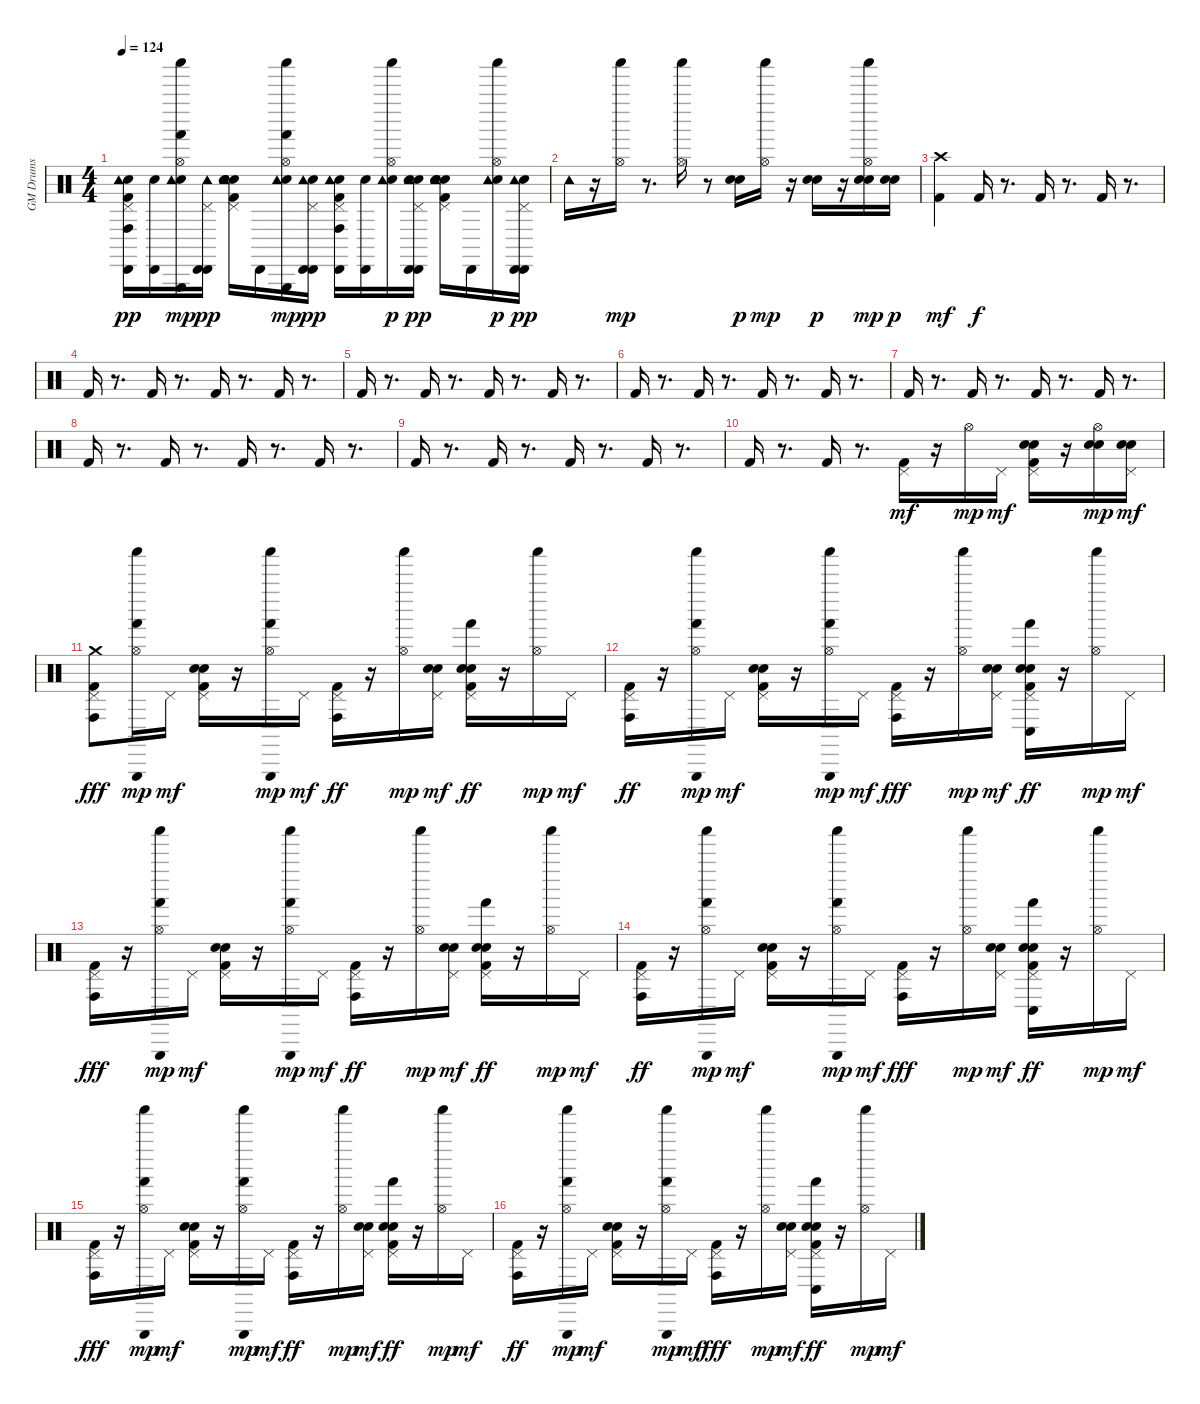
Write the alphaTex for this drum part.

\track ("GM Drums" "GM Drums") {instrument percussion}
\staff {score}
\articulation defaults
\ts (4 4)
\tempo 124
\clef neutral
\ks c
("Snare (hit)" "Kick (hit) 2" "Pedal Hi-Hat (hit)" "Tambourine (hit)" "Conga high (hit)" "Cabasa (hit)").16{dy pp} ("Snare (hit)" "Cabasa (hit)").16 ("Snare (hit)" "Hi-Hat (open)" "Tambourine (hit)" "Hand (hit)" "Triangle (hit)" "Shaker (hit)").16{dy mp} ("Pedal Hi-Hat (hit)" "Tambourine (hit)" "Cabasa (hit)" "Cabasa (hit)").16{dy pp} ("Snare (hit)" "Kick (hit) 2" "Snare (hit) 2" "Hand Clap (hit)" "Pedal Hi-Hat (hit)" "Tambourine (hit)").16 "Cabasa (hit)".16 ("Snare (hit)" "Hi-Hat (open)" "Tambourine (hit)" "Hand (hit)" "Triangle (hit)" "Shaker (hit)").16{dy mp} ("Snare (hit)" "Pedal Hi-Hat (hit)" "Tambourine (hit)" "Cabasa (hit)" "Cabasa (hit)").16{dy pp} ("Snare (hit)" "Kick (hit) 2" "Pedal Hi-Hat (hit)" "Tambourine (hit)" "Conga high (hit)" "Cabasa (hit)").16 ("Snare (hit)" "Cabasa (hit)").16 ("Snare (hit)" "Hi-Hat (open)" "Tambourine (hit)" "Shaker (hit)").16{dy p} ("Snare (hit) 2" "Hand Clap (hit)" "Pedal Hi-Hat (hit)" "Tambourine (hit)" "Cabasa (hit)" "Cabasa (hit)").16{dy pp} ("Snare (hit)" "Kick (hit) 2" "Snare (hit) 2" "Hand Clap (hit)" "Pedal Hi-Hat (hit)" "Tambourine (hit)").16 "Cabasa (hit)".16 ("Snare (hit)" "Hi-Hat (open)" "Tambourine (hit)" "Shaker (hit)").16{dy p} ("Snare (hit)" "Pedal Hi-Hat (hit)" "Tambourine (hit)" "Cabasa (hit)" "Cabasa (hit)").16{dy pp} |
"Tambourine (hit)".16 r.16 ("Hi-Hat (open)" "Shaker (hit)").16{dy mp} r.8{d} ("Hi-Hat (open)" "Shaker (hit)").16 r.8 ("Snare (hit) 2" "Hand Clap (hit)").16{dy p} ("Hi-Hat (open)" "Shaker (hit)").16{dy mp} r.16 ("Snare (hit) 2" "Hand Clap (hit)").16{dy p} r.16 ("Snare (hit) 2" "Hand Clap (hit)" "Hi-Hat (open)" "Shaker (hit)").16{dy mp} ("Snare (hit) 2" "Hand Clap (hit)").16{dy p} |
("Kick (hit) 2" "Crash high (hit)").4{dy mf} "Kick (hit) 2".16{dy f} r.8{d} "Kick (hit) 2".16 r.8{d} "Kick (hit) 2".16 r.8{d} |
"Kick (hit) 2".16 r.8{d} "Kick (hit) 2".16 r.8{d} "Kick (hit) 2".16 r.8{d} "Kick (hit) 2".16 r.8{d} |
"Kick (hit) 2".16 r.8{d} "Kick (hit) 2".16 r.8{d} "Kick (hit) 2".16 r.8{d} "Kick (hit) 2".16 r.8{d} |
"Kick (hit) 2".16 r.8{d} "Kick (hit) 2".16 r.8{d} "Kick (hit) 2".16 r.8{d} "Kick (hit) 2".16 r.8{d} |
"Kick (hit) 2".16 r.8{d} "Kick (hit) 2".16 r.8{d} "Kick (hit) 2".16 r.8{d} "Kick (hit) 2".16 r.8{d} |
"Kick (hit) 2".16 r.8{d} "Kick (hit) 2".16 r.8{d} "Kick (hit) 2".16 r.8{d} "Kick (hit) 2".16 r.8{d} |
"Kick (hit) 2".16 r.8{d} "Kick (hit) 2".16 r.8{d} "Kick (hit) 2".16 r.8{d} "Kick (hit) 2".16 r.8{d} |
"Kick (hit) 2".16 r.8{d} "Kick (hit) 2".16 r.8{d} ("Kick (hit) 2" "Pedal Hi-Hat (hit)").16{dy mf} r.16 "Hi-Hat (open)".16{dy mp} "Pedal Hi-Hat (hit)".16{dy mf} ("Kick (hit) 2" "Snare (hit) 2" "Hand Clap (hit)" "Pedal Hi-Hat (hit)").16 r.16 ("Snare (hit) 2" "Hand Clap (hit)" "Hi-Hat (open)").16{dy mp} ("Snare (hit) 2" "Hand Clap (hit)" "Pedal Hi-Hat (hit)").16{dy mf} |
("Kick (hit) 2" "Pedal Hi-Hat (hit)" "Crash medium (hit)" "Conga high (hit)").8{dy fff} ("Hi-Hat (open)" "Hand (hit)" "Triangle (hit)" "Shaker (hit)").16{dy mp} "Pedal Hi-Hat (hit)".16{dy mf} ("Kick (hit) 2" "Snare (hit) 2" "Hand Clap (hit)" "Pedal Hi-Hat (hit)").16 r.16 ("Hi-Hat (open)" "Hand (hit)" "Triangle (hit)" "Shaker (hit)").16{dy mp} "Pedal Hi-Hat (hit)".16{dy mf} ("Kick (hit) 2" "Pedal Hi-Hat (hit)" "Conga high (hit)").16{dy ff} r.16 ("Hi-Hat (open)" "Shaker (hit)").16{dy mp} ("Snare (hit) 2" "Hand Clap (hit)" "Pedal Hi-Hat (hit)").16{dy mf} ("Kick (hit) 2" "Snare (hit) 2" "Hand Clap (hit)" "Pedal Hi-Hat (hit)" "Hand (hit)").16{dy ff} r.16 ("Hi-Hat (open)" "Shaker (hit)").16{dy mp} "Pedal Hi-Hat (hit)".16{dy mf} |
("Kick (hit) 2" "Pedal Hi-Hat (hit)" "Conga high (hit)").16{dy ff} r.16 ("Hi-Hat (open)" "Hand (hit)" "Triangle (hit)" "Shaker (hit)").16{dy mp} "Pedal Hi-Hat (hit)".16{dy mf} ("Kick (hit) 2" "Snare (hit) 2" "Hand Clap (hit)" "Pedal Hi-Hat (hit)").16 r.16 ("Hi-Hat (open)" "Hand (hit)" "Triangle (hit)" "Shaker (hit)").16{dy mp} "Pedal Hi-Hat (hit)".16{dy mf} ("Kick (hit) 2" "Pedal Hi-Hat (hit)" "Conga high (hit)").16{dy fff} r.16 ("Hi-Hat (open)" "Shaker (hit)").16{dy mp} ("Snare (hit) 2" "Hand Clap (hit)" "Pedal Hi-Hat (hit)").16{dy mf} ("Kick (hit) 2" "Snare (hit) 2" "Hand Clap (hit)" "Pedal Hi-Hat (hit)" "Hand (hit)" "Conga low (hit)").16{dy ff} r.16 ("Hi-Hat (open)" "Shaker (hit)").16{dy mp} "Pedal Hi-Hat (hit)".16{dy mf} |
("Kick (hit) 2" "Pedal Hi-Hat (hit)" "Conga high (hit)").16{dy fff} r.16 ("Hi-Hat (open)" "Hand (hit)" "Triangle (hit)" "Shaker (hit)").16{dy mp} "Pedal Hi-Hat (hit)".16{dy mf} ("Kick (hit) 2" "Snare (hit) 2" "Hand Clap (hit)" "Pedal Hi-Hat (hit)").16 r.16 ("Hi-Hat (open)" "Hand (hit)" "Triangle (hit)" "Shaker (hit)").16{dy mp} "Pedal Hi-Hat (hit)".16{dy mf} ("Kick (hit) 2" "Pedal Hi-Hat (hit)" "Conga high (hit)").16{dy ff} r.16 ("Hi-Hat (open)" "Shaker (hit)").16{dy mp} ("Snare (hit) 2" "Hand Clap (hit)" "Pedal Hi-Hat (hit)").16{dy mf} ("Kick (hit) 2" "Snare (hit) 2" "Hand Clap (hit)" "Pedal Hi-Hat (hit)" "Hand (hit)").16{dy ff} r.16 ("Hi-Hat (open)" "Shaker (hit)").16{dy mp} "Pedal Hi-Hat (hit)".16{dy mf} |
("Kick (hit) 2" "Pedal Hi-Hat (hit)" "Conga high (hit)").16{dy ff} r.16 ("Hi-Hat (open)" "Hand (hit)" "Triangle (hit)" "Shaker (hit)").16{dy mp} "Pedal Hi-Hat (hit)".16{dy mf} ("Kick (hit) 2" "Snare (hit) 2" "Hand Clap (hit)" "Pedal Hi-Hat (hit)").16 r.16 ("Hi-Hat (open)" "Hand (hit)" "Triangle (hit)" "Shaker (hit)").16{dy mp} "Pedal Hi-Hat (hit)".16{dy mf} ("Kick (hit) 2" "Pedal Hi-Hat (hit)" "Conga high (hit)").16{dy fff} r.16 ("Hi-Hat (open)" "Shaker (hit)").16{dy mp} ("Snare (hit) 2" "Hand Clap (hit)" "Pedal Hi-Hat (hit)").16{dy mf} ("Kick (hit) 2" "Snare (hit) 2" "Hand Clap (hit)" "Pedal Hi-Hat (hit)" "Hand (hit)" "Conga low (hit)").16{dy ff} r.16 ("Hi-Hat (open)" "Shaker (hit)").16{dy mp} "Pedal Hi-Hat (hit)".16{dy mf} |
("Kick (hit) 2" "Pedal Hi-Hat (hit)" "Conga high (hit)").16{dy fff} r.16 ("Hi-Hat (open)" "Hand (hit)" "Triangle (hit)" "Shaker (hit)").16{dy mp} "Pedal Hi-Hat (hit)".16{dy mf} ("Kick (hit) 2" "Snare (hit) 2" "Hand Clap (hit)" "Pedal Hi-Hat (hit)").16 r.16 ("Hi-Hat (open)" "Hand (hit)" "Triangle (hit)" "Shaker (hit)").16{dy mp} "Pedal Hi-Hat (hit)".16{dy mf} ("Kick (hit) 2" "Pedal Hi-Hat (hit)" "Conga high (hit)").16{dy ff} r.16 ("Hi-Hat (open)" "Shaker (hit)").16{dy mp} ("Snare (hit) 2" "Hand Clap (hit)" "Pedal Hi-Hat (hit)").16{dy mf} ("Kick (hit) 2" "Snare (hit) 2" "Hand Clap (hit)" "Pedal Hi-Hat (hit)" "Hand (hit)").16{dy ff} r.16 ("Hi-Hat (open)" "Shaker (hit)").16{dy mp} "Pedal Hi-Hat (hit)".16{dy mf} |
("Kick (hit) 2" "Pedal Hi-Hat (hit)" "Conga high (hit)").16{dy ff} r.16 ("Hi-Hat (open)" "Hand (hit)" "Triangle (hit)" "Shaker (hit)").16{dy mp} "Pedal Hi-Hat (hit)".16{dy mf} ("Kick (hit) 2" "Snare (hit) 2" "Hand Clap (hit)" "Pedal Hi-Hat (hit)").16 r.16 ("Hi-Hat (open)" "Hand (hit)" "Triangle (hit)" "Shaker (hit)").16{dy mp} "Pedal Hi-Hat (hit)".16{dy mf} ("Kick (hit) 2" "Pedal Hi-Hat (hit)" "Conga high (hit)").16{dy fff} r.16 ("Hi-Hat (open)" "Shaker (hit)").16{dy mp} ("Snare (hit) 2" "Hand Clap (hit)" "Pedal Hi-Hat (hit)").16{dy mf} ("Kick (hit) 2" "Snare (hit) 2" "Hand Clap (hit)" "Pedal Hi-Hat (hit)" "Hand (hit)" "Conga low (hit)").16{dy ff} r.16 ("Hi-Hat (open)" "Shaker (hit)").16{dy mp} "Pedal Hi-Hat (hit)".16{dy mf}
